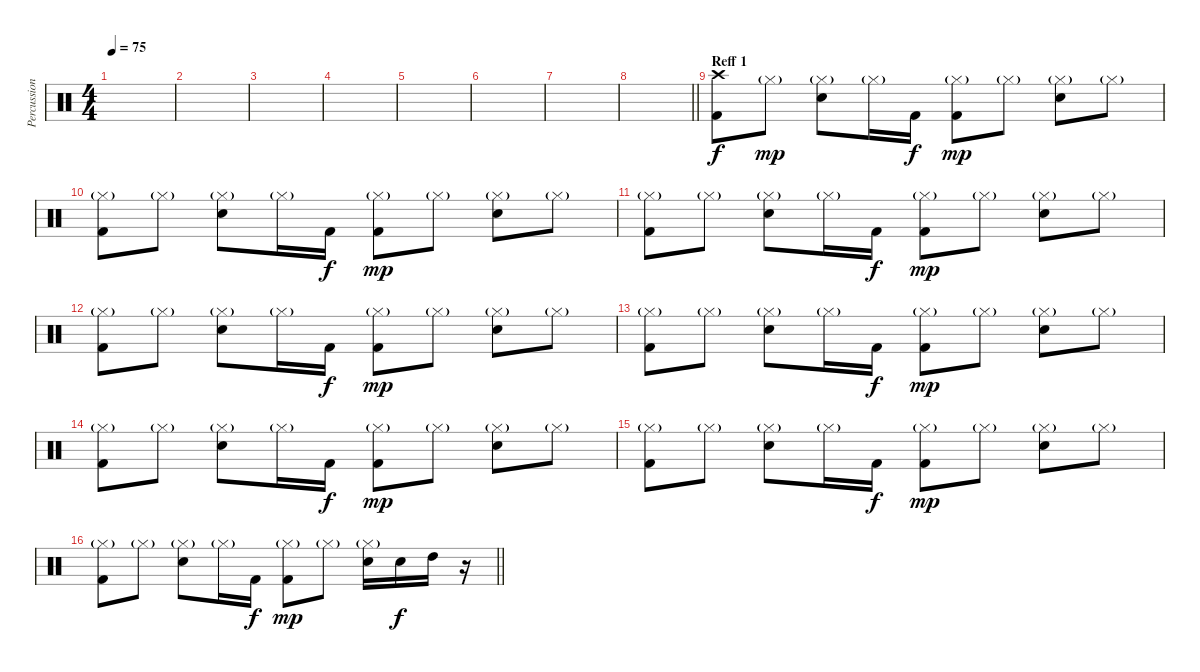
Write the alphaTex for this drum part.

\track ("Percussion" "Percussion") {instrument percussion}
\staff {score}
\articulation defaults
\ts (4 4)
\tempo 75
\clef neutral
\ks c
|
|
|
|
|
|
|
\barLineRight lightlight
|
\section ("" "Reff 1")
("Crash high (hit)" "Kick (hit) 2").8 "Hi-Hat (closed)"{g}.8{dy mp} ("Hi-Hat (closed)"{g} "Electric Snare (hit)").8 "Hi-Hat (closed)"{g}.16 "Kick (hit) 2".16{dy f} ("Hi-Hat (closed)"{g} "Kick (hit) 2").8{dy mp} "Hi-Hat (closed)"{g}.8 ("Hi-Hat (closed)"{g} "Electric Snare (hit)").8 "Hi-Hat (closed)"{g}.8 |
("Hi-Hat (closed)"{g} "Kick (hit) 2").8 "Hi-Hat (closed)"{g}.8 ("Hi-Hat (closed)"{g} "Electric Snare (hit)").8 "Hi-Hat (closed)"{g}.16 "Kick (hit) 2".16{dy f} ("Hi-Hat (closed)"{g} "Kick (hit) 2").8{dy mp} "Hi-Hat (closed)"{g}.8 ("Hi-Hat (closed)"{g} "Electric Snare (hit)").8 "Hi-Hat (closed)"{g}.8 |
("Hi-Hat (closed)"{g} "Kick (hit) 2").8 "Hi-Hat (closed)"{g}.8 ("Hi-Hat (closed)"{g} "Electric Snare (hit)").8 "Hi-Hat (closed)"{g}.16 "Kick (hit) 2".16{dy f} ("Hi-Hat (closed)"{g} "Kick (hit) 2").8{dy mp} "Hi-Hat (closed)"{g}.8 ("Hi-Hat (closed)"{g} "Electric Snare (hit)").8 "Hi-Hat (closed)"{g}.8 |
("Hi-Hat (closed)"{g} "Kick (hit) 2").8 "Hi-Hat (closed)"{g}.8 ("Hi-Hat (closed)"{g} "Electric Snare (hit)").8 "Hi-Hat (closed)"{g}.16 "Kick (hit) 2".16{dy f} ("Hi-Hat (closed)"{g} "Kick (hit) 2").8{dy mp} "Hi-Hat (closed)"{g}.8 ("Hi-Hat (closed)"{g} "Electric Snare (hit)").8 "Hi-Hat (closed)"{g}.8 |
("Hi-Hat (closed)"{g} "Kick (hit) 2").8 "Hi-Hat (closed)"{g}.8 ("Hi-Hat (closed)"{g} "Electric Snare (hit)").8 "Hi-Hat (closed)"{g}.16 "Kick (hit) 2".16{dy f} ("Hi-Hat (closed)"{g} "Kick (hit) 2").8{dy mp} "Hi-Hat (closed)"{g}.8 ("Hi-Hat (closed)"{g} "Electric Snare (hit)").8 "Hi-Hat (closed)"{g}.8 |
("Hi-Hat (closed)"{g} "Kick (hit) 2").8 "Hi-Hat (closed)"{g}.8 ("Hi-Hat (closed)"{g} "Electric Snare (hit)").8 "Hi-Hat (closed)"{g}.16 "Kick (hit) 2".16{dy f} ("Hi-Hat (closed)"{g} "Kick (hit) 2").8{dy mp} "Hi-Hat (closed)"{g}.8 ("Hi-Hat (closed)"{g} "Electric Snare (hit)").8 "Hi-Hat (closed)"{g}.8 |
("Hi-Hat (closed)"{g} "Kick (hit) 2").8 "Hi-Hat (closed)"{g}.8 ("Hi-Hat (closed)"{g} "Electric Snare (hit)").8 "Hi-Hat (closed)"{g}.16 "Kick (hit) 2".16{dy f} ("Hi-Hat (closed)"{g} "Kick (hit) 2").8{dy mp} "Hi-Hat (closed)"{g}.8 ("Hi-Hat (closed)"{g} "Electric Snare (hit)").8 "Hi-Hat (closed)"{g}.8 |
\barLineRight lightlight
("Hi-Hat (closed)"{g} "Kick (hit) 2").8 "Hi-Hat (closed)"{g}.8 ("Hi-Hat (closed)"{g} "Electric Snare (hit)").8 "Hi-Hat (closed)"{g}.16 "Kick (hit) 2".16{dy f} ("Hi-Hat (closed)"{g} "Kick (hit) 2").8{dy mp} "Hi-Hat (closed)"{g}.8 ("Hi-Hat (closed)"{g} "Electric Snare (hit)").16 "Electric Snare (hit)".16{dy f} "High Tom (hit)".16 r.16
